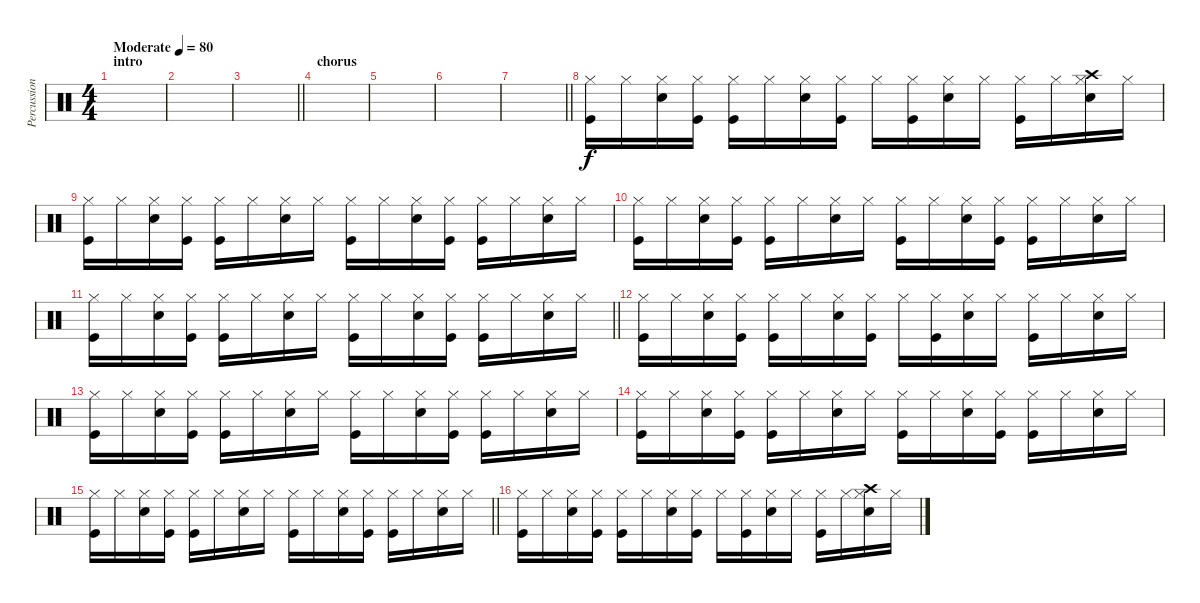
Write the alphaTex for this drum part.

\track ("Percussion" "Percussion") {instrument percussion}
\staff {score}
\articulation defaults
\ts (4 4)
\section ("" "intro")
\tempo (80 "Moderate")
\clef neutral
\ks c
|
|
\barLineRight lightlight
|
\section ("" "chorus")
|
|
|
\barLineRight lightlight
|
("Hi-Hat (closed)" "Kick (hit)").16 "Hi-Hat (closed)".16 ("Hi-Hat (closed)" "Snare (hit) 2").16 ("Hi-Hat (closed)" "Kick (hit)").16 ("Hi-Hat (closed)" "Kick (hit)").16 "Hi-Hat (closed)".16 ("Hi-Hat (closed)" "Snare (hit) 2").16 ("Hi-Hat (closed)" "Kick (hit)").16 "Hi-Hat (closed)".16 ("Hi-Hat (closed)" "Kick (hit)").16 ("Hi-Hat (closed)" "Snare (hit) 2").16 "Hi-Hat (closed)".16 ("Hi-Hat (closed)" "Kick (hit)").16 "Hi-Hat (closed)".16 ("Crash high (hit)" "Hi-Hat (closed)" "Snare (hit) 2").16 "Hi-Hat (closed)".16 |
("Hi-Hat (closed)" "Kick (hit)").16 "Hi-Hat (closed)".16 ("Hi-Hat (closed)" "Snare (hit) 2").16 ("Hi-Hat (closed)" "Kick (hit)").16 ("Hi-Hat (closed)" "Kick (hit)").16 "Hi-Hat (closed)".16 ("Hi-Hat (closed)" "Snare (hit) 2").16 "Hi-Hat (closed)".16 ("Hi-Hat (closed)" "Kick (hit)").16 "Hi-Hat (closed)".16 ("Hi-Hat (closed)" "Snare (hit) 2").16 ("Hi-Hat (closed)" "Kick (hit)").16 ("Hi-Hat (closed)" "Kick (hit)").16 "Hi-Hat (closed)".16 ("Hi-Hat (closed)" "Snare (hit) 2").16 "Hi-Hat (closed)".16 |
("Hi-Hat (closed)" "Kick (hit)").16 "Hi-Hat (closed)".16 ("Hi-Hat (closed)" "Snare (hit) 2").16 ("Hi-Hat (closed)" "Kick (hit)").16 ("Hi-Hat (closed)" "Kick (hit)").16 "Hi-Hat (closed)".16 ("Hi-Hat (closed)" "Snare (hit) 2").16 "Hi-Hat (closed)".16 ("Hi-Hat (closed)" "Kick (hit)").16 "Hi-Hat (closed)".16 ("Hi-Hat (closed)" "Snare (hit) 2").16 ("Hi-Hat (closed)" "Kick (hit)").16 ("Hi-Hat (closed)" "Kick (hit)").16 "Hi-Hat (closed)".16 ("Hi-Hat (closed)" "Snare (hit) 2").16 "Hi-Hat (closed)".16 |
\barLineRight lightlight
("Hi-Hat (closed)" "Kick (hit)").16 "Hi-Hat (closed)".16 ("Hi-Hat (closed)" "Snare (hit) 2").16 ("Hi-Hat (closed)" "Kick (hit)").16 ("Hi-Hat (closed)" "Kick (hit)").16 "Hi-Hat (closed)".16 ("Hi-Hat (closed)" "Snare (hit) 2").16 "Hi-Hat (closed)".16 ("Hi-Hat (closed)" "Kick (hit)").16 "Hi-Hat (closed)".16 ("Hi-Hat (closed)" "Snare (hit) 2").16 ("Hi-Hat (closed)" "Kick (hit)").16 ("Hi-Hat (closed)" "Kick (hit)").16 "Hi-Hat (closed)".16 ("Hi-Hat (closed)" "Snare (hit) 2").16 "Hi-Hat (closed)".16 |
("Hi-Hat (closed)" "Kick (hit)").16 "Hi-Hat (closed)".16 ("Hi-Hat (closed)" "Snare (hit) 2").16 ("Hi-Hat (closed)" "Kick (hit)").16 ("Hi-Hat (closed)" "Kick (hit)").16 "Hi-Hat (closed)".16 ("Hi-Hat (closed)" "Snare (hit) 2").16 ("Hi-Hat (closed)" "Kick (hit)").16 "Hi-Hat (closed)".16 ("Hi-Hat (closed)" "Kick (hit)").16 ("Hi-Hat (closed)" "Snare (hit) 2").16 "Hi-Hat (closed)".16 ("Hi-Hat (closed)" "Kick (hit)").16 "Hi-Hat (closed)".16 ("Hi-Hat (closed)" "Snare (hit) 2").16 "Hi-Hat (closed)".16 |
("Hi-Hat (closed)" "Kick (hit)").16 "Hi-Hat (closed)".16 ("Hi-Hat (closed)" "Snare (hit) 2").16 ("Hi-Hat (closed)" "Kick (hit)").16 ("Hi-Hat (closed)" "Kick (hit)").16 "Hi-Hat (closed)".16 ("Hi-Hat (closed)" "Snare (hit) 2").16 "Hi-Hat (closed)".16 ("Hi-Hat (closed)" "Kick (hit)").16 "Hi-Hat (closed)".16 ("Hi-Hat (closed)" "Snare (hit) 2").16 ("Hi-Hat (closed)" "Kick (hit)").16 ("Hi-Hat (closed)" "Kick (hit)").16 "Hi-Hat (closed)".16 ("Hi-Hat (closed)" "Snare (hit) 2").16 "Hi-Hat (closed)".16 |
("Hi-Hat (closed)" "Kick (hit)").16 "Hi-Hat (closed)".16 ("Hi-Hat (closed)" "Snare (hit) 2").16 ("Hi-Hat (closed)" "Kick (hit)").16 ("Hi-Hat (closed)" "Kick (hit)").16 "Hi-Hat (closed)".16 ("Hi-Hat (closed)" "Snare (hit) 2").16 "Hi-Hat (closed)".16 ("Hi-Hat (closed)" "Kick (hit)").16 "Hi-Hat (closed)".16 ("Hi-Hat (closed)" "Snare (hit) 2").16 ("Hi-Hat (closed)" "Kick (hit)").16 ("Hi-Hat (closed)" "Kick (hit)").16 "Hi-Hat (closed)".16 ("Hi-Hat (closed)" "Snare (hit) 2").16 "Hi-Hat (closed)".16 |
\barLineRight lightlight
("Hi-Hat (closed)" "Kick (hit)").16 "Hi-Hat (closed)".16 ("Hi-Hat (closed)" "Snare (hit) 2").16 ("Hi-Hat (closed)" "Kick (hit)").16 ("Hi-Hat (closed)" "Kick (hit)").16 "Hi-Hat (closed)".16 ("Hi-Hat (closed)" "Snare (hit) 2").16 "Hi-Hat (closed)".16 ("Hi-Hat (closed)" "Kick (hit)").16 "Hi-Hat (closed)".16 ("Hi-Hat (closed)" "Snare (hit) 2").16 ("Hi-Hat (closed)" "Kick (hit)").16 ("Hi-Hat (closed)" "Kick (hit)").16 "Hi-Hat (closed)".16 ("Hi-Hat (closed)" "Snare (hit) 2").16 "Hi-Hat (closed)".16 |
("Hi-Hat (closed)" "Kick (hit)").16 "Hi-Hat (closed)".16 ("Hi-Hat (closed)" "Snare (hit) 2").16 ("Hi-Hat (closed)" "Kick (hit)").16 ("Hi-Hat (closed)" "Kick (hit)").16 "Hi-Hat (closed)".16 ("Hi-Hat (closed)" "Snare (hit) 2").16 ("Hi-Hat (closed)" "Kick (hit)").16 "Hi-Hat (closed)".16 ("Hi-Hat (closed)" "Kick (hit)").16 ("Hi-Hat (closed)" "Snare (hit) 2").16 "Hi-Hat (closed)".16 ("Hi-Hat (closed)" "Kick (hit)").16 "Hi-Hat (closed)".16 ("Hi-Hat (closed)" "Snare (hit) 2" "Crash high (hit)").16 "Hi-Hat (closed)".16
